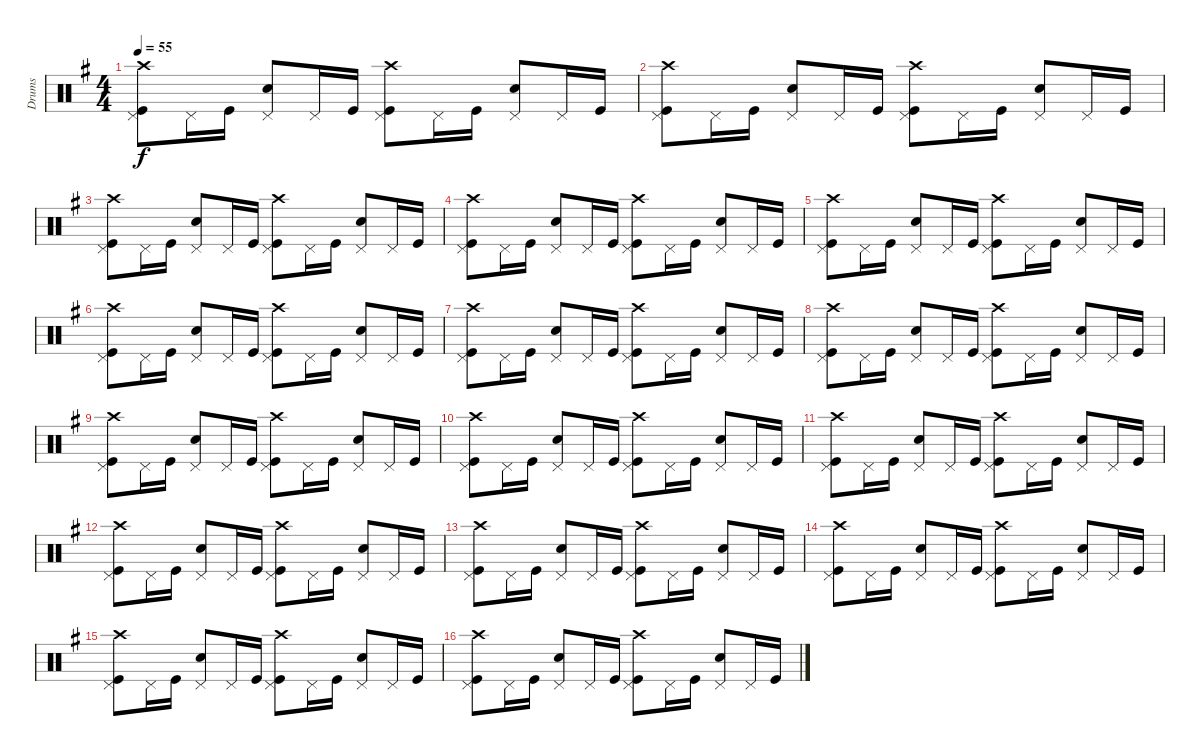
\track ("Drums" "Drums") {instrument percussion}
\staff {score}
\articulation defaults
\ts (4 4)
\tempo 55
\clef neutral
\ks eminor
("Crash high (hit)" "Kick (hit)" "Pedal Hi-Hat (hit)").8{dy f} "Pedal Hi-Hat (hit)".16 "Kick (hit)".16 ("Snare (hit) 2" "Pedal Hi-Hat (hit)").8 "Pedal Hi-Hat (hit)".16 "Kick (hit)".16 ("Crash high (hit)" "Kick (hit)" "Pedal Hi-Hat (hit)").8 "Pedal Hi-Hat (hit)".16 "Kick (hit)".16 ("Snare (hit) 2" "Pedal Hi-Hat (hit)").8 "Pedal Hi-Hat (hit)".16 "Kick (hit)".16 |
("Crash high (hit)" "Kick (hit)" "Pedal Hi-Hat (hit)").8 "Pedal Hi-Hat (hit)".16 "Kick (hit)".16 ("Snare (hit) 2" "Pedal Hi-Hat (hit)").8 "Pedal Hi-Hat (hit)".16 "Kick (hit)".16 ("Crash high (hit)" "Kick (hit)" "Pedal Hi-Hat (hit)").8 "Pedal Hi-Hat (hit)".16 "Kick (hit)".16 ("Snare (hit) 2" "Pedal Hi-Hat (hit)").8 "Pedal Hi-Hat (hit)".16 "Kick (hit)".16 |
("Crash high (hit)" "Kick (hit)" "Pedal Hi-Hat (hit)").8 "Pedal Hi-Hat (hit)".16 "Kick (hit)".16 ("Snare (hit) 2" "Pedal Hi-Hat (hit)").8 "Pedal Hi-Hat (hit)".16 "Kick (hit)".16 ("Crash high (hit)" "Kick (hit)" "Pedal Hi-Hat (hit)").8 "Pedal Hi-Hat (hit)".16 "Kick (hit)".16 ("Snare (hit) 2" "Pedal Hi-Hat (hit)").8 "Pedal Hi-Hat (hit)".16 "Kick (hit)".16 |
("Crash high (hit)" "Kick (hit)" "Pedal Hi-Hat (hit)").8 "Pedal Hi-Hat (hit)".16 "Kick (hit)".16 ("Snare (hit) 2" "Pedal Hi-Hat (hit)").8 "Pedal Hi-Hat (hit)".16 "Kick (hit)".16 ("Crash high (hit)" "Kick (hit)" "Pedal Hi-Hat (hit)").8 "Pedal Hi-Hat (hit)".16 "Kick (hit)".16 ("Snare (hit) 2" "Pedal Hi-Hat (hit)").8 "Pedal Hi-Hat (hit)".16 "Kick (hit)".16 |
("Crash high (hit)" "Kick (hit)" "Pedal Hi-Hat (hit)").8 "Pedal Hi-Hat (hit)".16 "Kick (hit)".16 ("Snare (hit) 2" "Pedal Hi-Hat (hit)").8 "Pedal Hi-Hat (hit)".16 "Kick (hit)".16 ("Crash high (hit)" "Kick (hit)" "Pedal Hi-Hat (hit)").8 "Pedal Hi-Hat (hit)".16 "Kick (hit)".16 ("Snare (hit) 2" "Pedal Hi-Hat (hit)").8 "Pedal Hi-Hat (hit)".16 "Kick (hit)".16 |
("Crash high (hit)" "Kick (hit)" "Pedal Hi-Hat (hit)").8 "Pedal Hi-Hat (hit)".16 "Kick (hit)".16 ("Snare (hit) 2" "Pedal Hi-Hat (hit)").8 "Pedal Hi-Hat (hit)".16 "Kick (hit)".16 ("Crash high (hit)" "Kick (hit)" "Pedal Hi-Hat (hit)").8 "Pedal Hi-Hat (hit)".16 "Kick (hit)".16 ("Snare (hit) 2" "Pedal Hi-Hat (hit)").8 "Pedal Hi-Hat (hit)".16 "Kick (hit)".16 |
("Crash high (hit)" "Kick (hit)" "Pedal Hi-Hat (hit)").8 "Pedal Hi-Hat (hit)".16 "Kick (hit)".16 ("Snare (hit) 2" "Pedal Hi-Hat (hit)").8 "Pedal Hi-Hat (hit)".16 "Kick (hit)".16 ("Crash high (hit)" "Kick (hit)" "Pedal Hi-Hat (hit)").8 "Pedal Hi-Hat (hit)".16 "Kick (hit)".16 ("Snare (hit) 2" "Pedal Hi-Hat (hit)").8 "Pedal Hi-Hat (hit)".16 "Kick (hit)".16 |
("Crash high (hit)" "Kick (hit)" "Pedal Hi-Hat (hit)").8 "Pedal Hi-Hat (hit)".16 "Kick (hit)".16 ("Snare (hit) 2" "Pedal Hi-Hat (hit)").8 "Pedal Hi-Hat (hit)".16 "Kick (hit)".16 ("Crash high (hit)" "Kick (hit)" "Pedal Hi-Hat (hit)").8 "Pedal Hi-Hat (hit)".16 "Kick (hit)".16 ("Snare (hit) 2" "Pedal Hi-Hat (hit)").8 "Pedal Hi-Hat (hit)".16 "Kick (hit)".16 |
("Crash high (hit)" "Kick (hit)" "Pedal Hi-Hat (hit)").8 "Pedal Hi-Hat (hit)".16 "Kick (hit)".16 ("Snare (hit) 2" "Pedal Hi-Hat (hit)").8 "Pedal Hi-Hat (hit)".16 "Kick (hit)".16 ("Crash high (hit)" "Kick (hit)" "Pedal Hi-Hat (hit)").8 "Pedal Hi-Hat (hit)".16 "Kick (hit)".16 ("Snare (hit) 2" "Pedal Hi-Hat (hit)").8 "Pedal Hi-Hat (hit)".16 "Kick (hit)".16 |
("Crash high (hit)" "Kick (hit)" "Pedal Hi-Hat (hit)").8 "Pedal Hi-Hat (hit)".16 "Kick (hit)".16 ("Snare (hit) 2" "Pedal Hi-Hat (hit)").8 "Pedal Hi-Hat (hit)".16 "Kick (hit)".16 ("Crash high (hit)" "Kick (hit)" "Pedal Hi-Hat (hit)").8 "Pedal Hi-Hat (hit)".16 "Kick (hit)".16 ("Snare (hit) 2" "Pedal Hi-Hat (hit)").8 "Pedal Hi-Hat (hit)".16 "Kick (hit)".16 |
("Crash high (hit)" "Kick (hit)" "Pedal Hi-Hat (hit)").8 "Pedal Hi-Hat (hit)".16 "Kick (hit)".16 ("Snare (hit) 2" "Pedal Hi-Hat (hit)").8 "Pedal Hi-Hat (hit)".16 "Kick (hit)".16 ("Crash high (hit)" "Kick (hit)" "Pedal Hi-Hat (hit)").8 "Pedal Hi-Hat (hit)".16 "Kick (hit)".16 ("Snare (hit) 2" "Pedal Hi-Hat (hit)").8 "Pedal Hi-Hat (hit)".16 "Kick (hit)".16 |
("Crash high (hit)" "Kick (hit)" "Pedal Hi-Hat (hit)").8 "Pedal Hi-Hat (hit)".16 "Kick (hit)".16 ("Snare (hit) 2" "Pedal Hi-Hat (hit)").8 "Pedal Hi-Hat (hit)".16 "Kick (hit)".16 ("Crash high (hit)" "Kick (hit)" "Pedal Hi-Hat (hit)").8 "Pedal Hi-Hat (hit)".16 "Kick (hit)".16 ("Snare (hit) 2" "Pedal Hi-Hat (hit)").8 "Pedal Hi-Hat (hit)".16 "Kick (hit)".16 |
("Crash high (hit)" "Kick (hit)" "Pedal Hi-Hat (hit)").8 "Pedal Hi-Hat (hit)".16 "Kick (hit)".16 ("Snare (hit) 2" "Pedal Hi-Hat (hit)").8 "Pedal Hi-Hat (hit)".16 "Kick (hit)".16 ("Crash high (hit)" "Kick (hit)" "Pedal Hi-Hat (hit)").8 "Pedal Hi-Hat (hit)".16 "Kick (hit)".16 ("Snare (hit) 2" "Pedal Hi-Hat (hit)").8 "Pedal Hi-Hat (hit)".16 "Kick (hit)".16 |
("Crash high (hit)" "Kick (hit)" "Pedal Hi-Hat (hit)").8 "Pedal Hi-Hat (hit)".16 "Kick (hit)".16 ("Snare (hit) 2" "Pedal Hi-Hat (hit)").8 "Pedal Hi-Hat (hit)".16 "Kick (hit)".16 ("Crash high (hit)" "Kick (hit)" "Pedal Hi-Hat (hit)").8 "Pedal Hi-Hat (hit)".16 "Kick (hit)".16 ("Snare (hit) 2" "Pedal Hi-Hat (hit)").8 "Pedal Hi-Hat (hit)".16 "Kick (hit)".16 |
("Crash high (hit)" "Kick (hit)" "Pedal Hi-Hat (hit)").8 "Pedal Hi-Hat (hit)".16 "Kick (hit)".16 ("Snare (hit) 2" "Pedal Hi-Hat (hit)").8 "Pedal Hi-Hat (hit)".16 "Kick (hit)".16 ("Crash high (hit)" "Kick (hit)" "Pedal Hi-Hat (hit)").8 "Pedal Hi-Hat (hit)".16 "Kick (hit)".16 ("Snare (hit) 2" "Pedal Hi-Hat (hit)").8 "Pedal Hi-Hat (hit)".16 "Kick (hit)".16 |
("Crash high (hit)" "Kick (hit)" "Pedal Hi-Hat (hit)").8 "Pedal Hi-Hat (hit)".16 "Kick (hit)".16 ("Snare (hit) 2" "Pedal Hi-Hat (hit)").8 "Pedal Hi-Hat (hit)".16 "Kick (hit)".16 ("Crash high (hit)" "Kick (hit)" "Pedal Hi-Hat (hit)").8 "Pedal Hi-Hat (hit)".16 "Kick (hit)".16 ("Snare (hit) 2" "Pedal Hi-Hat (hit)").8 "Pedal Hi-Hat (hit)".16 "Kick (hit)".16
